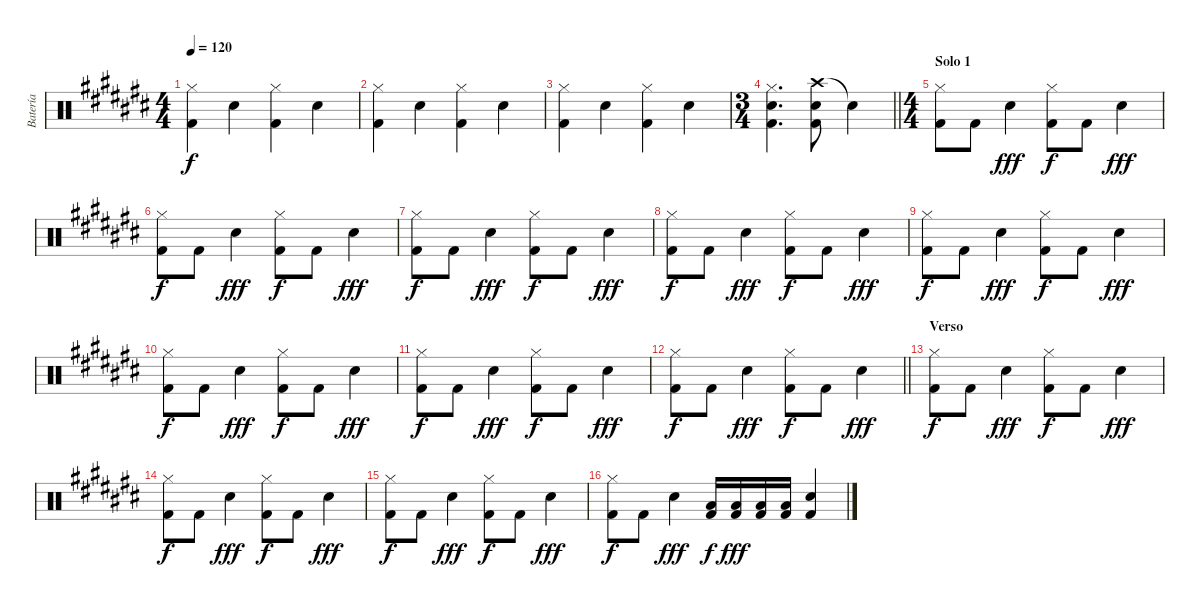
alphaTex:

\track ("Batería" "Batería") {instrument percussion}
\staff {score}
\articulation defaults
\ts (4 4)
\tempo 120
\clef neutral
\ks c#
("Hi-Hat (closed)" "Kick (hit) 2").4{dy f} "Electric Snare (hit)".4 ("Hi-Hat (closed)" "Kick (hit) 2").4 "Electric Snare (hit)".4 |
("Hi-Hat (closed)" "Kick (hit) 2").4 "Electric Snare (hit)".4 ("Hi-Hat (closed)" "Kick (hit) 2").4 "Electric Snare (hit)".4 |
("Hi-Hat (closed)" "Kick (hit) 2").4 "Electric Snare (hit)".4 ("Hi-Hat (closed)" "Kick (hit) 2").4 "Electric Snare (hit)".4 |
\ts (3 4)
\barLineRight lightlight
("Hi-Hat (closed)" "Electric Snare (hit)" "Kick (hit) 2").4{d} ("Crash high (hit)" "Electric Snare (hit)" "Kick (hit) 2").8 "Snare (hit)"{t}.4 |
\ts (4 4)
\section ("" "Solo 1")
("Hi-Hat (closed)" "Kick (hit) 2").8 "Kick (hit) 2".8 "Snare (hit) 2".4{dy fff} ("Hi-Hat (closed)" "Kick (hit) 2").8{dy f} "Kick (hit) 2".8 "Snare (hit) 2".4{dy fff} |
("Hi-Hat (closed)" "Kick (hit) 2").8{dy f} "Kick (hit) 2".8 "Snare (hit) 2".4{dy fff} ("Hi-Hat (closed)" "Kick (hit) 2").8{dy f} "Kick (hit) 2".8 "Snare (hit) 2".4{dy fff} |
("Hi-Hat (closed)" "Kick (hit) 2").8{dy f} "Kick (hit) 2".8 "Snare (hit) 2".4{dy fff} ("Hi-Hat (closed)" "Kick (hit) 2").8{dy f} "Kick (hit) 2".8 "Snare (hit) 2".4{dy fff} |
("Hi-Hat (closed)" "Kick (hit) 2").8{dy f} "Kick (hit) 2".8 "Snare (hit) 2".4{dy fff} ("Hi-Hat (closed)" "Kick (hit) 2").8{dy f} "Kick (hit) 2".8 "Snare (hit) 2".4{dy fff} |
("Hi-Hat (closed)" "Kick (hit) 2").8{dy f} "Kick (hit) 2".8 "Snare (hit) 2".4{dy fff} ("Hi-Hat (closed)" "Kick (hit) 2").8{dy f} "Kick (hit) 2".8 "Snare (hit) 2".4{dy fff} |
("Hi-Hat (closed)" "Kick (hit) 2").8{dy f} "Kick (hit) 2".8 "Snare (hit) 2".4{dy fff} ("Hi-Hat (closed)" "Kick (hit) 2").8{dy f} "Kick (hit) 2".8 "Snare (hit) 2".4{dy fff} |
("Hi-Hat (closed)" "Kick (hit) 2").8{dy f} "Kick (hit) 2".8 "Snare (hit) 2".4{dy fff} ("Hi-Hat (closed)" "Kick (hit) 2").8{dy f} "Kick (hit) 2".8 "Snare (hit) 2".4{dy fff} |
\barLineRight lightlight
("Hi-Hat (closed)" "Kick (hit) 2").8{dy f} "Kick (hit) 2".8 "Snare (hit) 2".4{dy fff} ("Hi-Hat (closed)" "Kick (hit) 2").8{dy f} "Kick (hit) 2".8 "Snare (hit) 2".4{dy fff} |
\section ("" "Verso")
("Hi-Hat (closed)" "Kick (hit) 2").8{dy f} "Kick (hit) 2".8 "Snare (hit) 2".4{dy fff} ("Hi-Hat (closed)" "Kick (hit) 2").8{dy f} "Kick (hit) 2".8 "Snare (hit) 2".4{dy fff} |
("Hi-Hat (closed)" "Kick (hit) 2").8{dy f} "Kick (hit) 2".8 "Snare (hit) 2".4{dy fff} ("Hi-Hat (closed)" "Kick (hit) 2").8{dy f} "Kick (hit) 2".8 "Snare (hit) 2".4{dy fff} |
("Hi-Hat (closed)" "Kick (hit) 2").8{dy f} "Kick (hit) 2".8 "Snare (hit) 2".4{dy fff} ("Hi-Hat (closed)" "Kick (hit) 2").8{dy f} "Kick (hit) 2".8 "Snare (hit) 2".4{dy fff} |
("Hi-Hat (closed)" "Kick (hit) 2").8{dy f} "Kick (hit) 2".8 "Snare (hit) 2".4{dy fff} ("Low Tom (hit)" "Kick (hit) 2").16{dy f} ("Low Tom (hit)" "Kick (hit) 2").16{dy fff} ("Low Tom (hit)" "Kick (hit) 2").16 ("Low Tom (hit)" "Kick (hit) 2").16 ("Snare (hit) 2" "Kick (hit) 2").4
